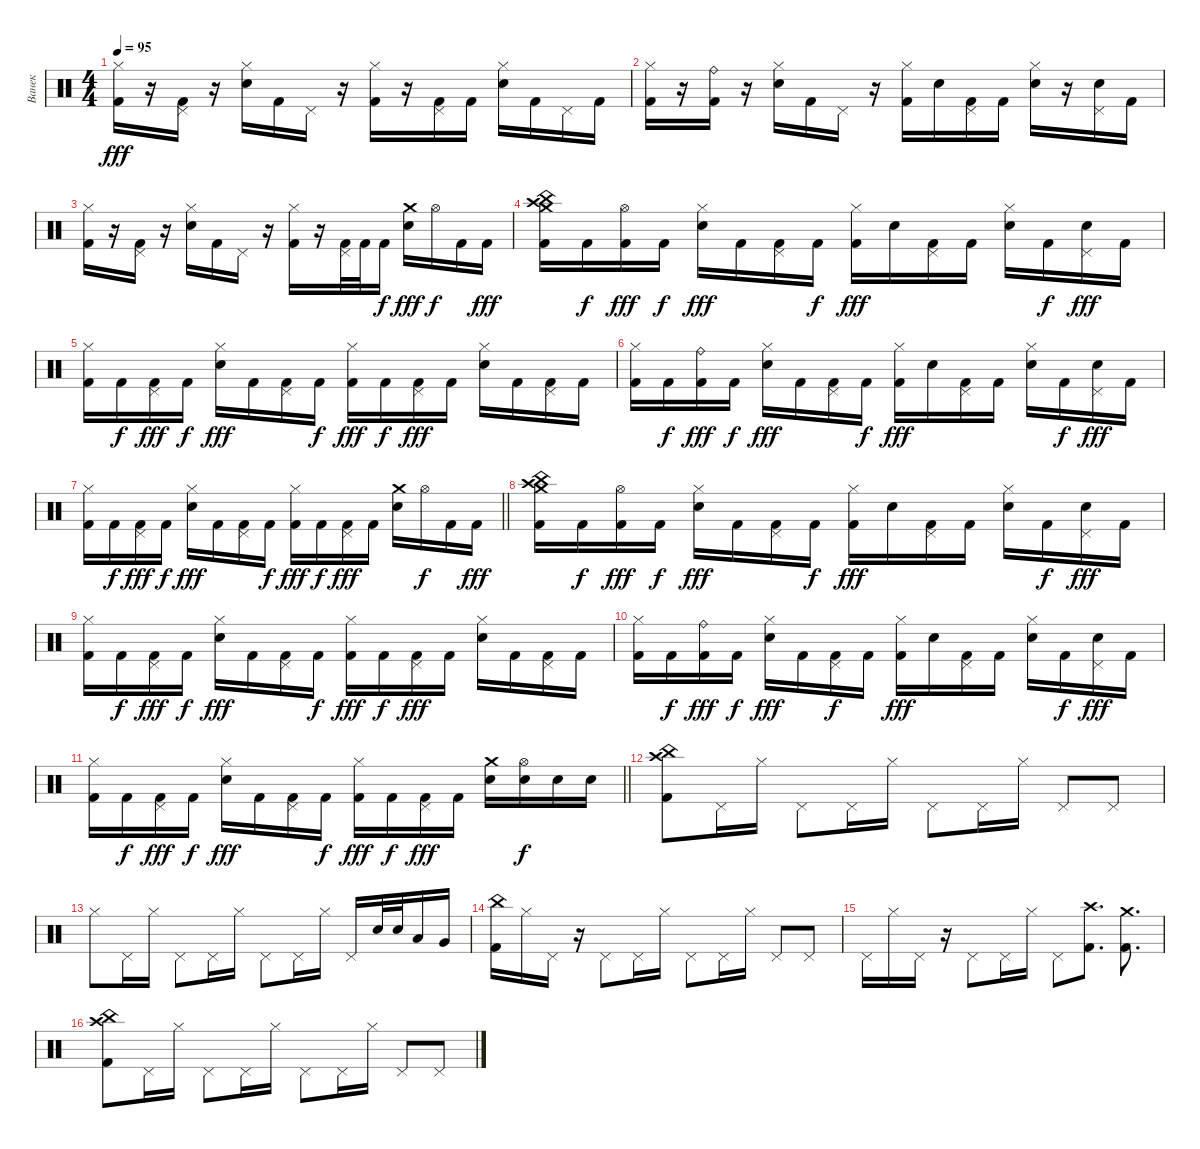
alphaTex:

\track ("Ванек" "Ванек") {instrument percussion}
\staff {score}
\articulation defaults
\ts (4 4)
\tempo 95
\clef neutral
\ks c
("Hi-Hat (closed)" "Kick (hit) 2").16{dy fff} r.16 ("Pedal Hi-Hat (hit)" "Kick (hit) 2").16 r.16 ("Hi-Hat (closed)" "Snare (hit) 2").16 "Kick (hit) 2".16 "Pedal Hi-Hat (hit)".16 r.16 ("Hi-Hat (closed)" "Kick (hit) 2").16 r.16 ("Pedal Hi-Hat (hit)" "Kick (hit) 2").16 "Kick (hit) 2".16 ("Hi-Hat (closed)" "Snare (hit) 2").16 "Kick (hit) 2".16 "Pedal Hi-Hat (hit)".16 "Kick (hit) 2".16 |
("Hi-Hat (closed)" "Kick (hit) 2").16 r.16 ("Ride (bell)" "Kick (hit) 2").16 r.16 ("Hi-Hat (closed)" "Snare (hit) 2").16 "Kick (hit) 2".16 "Pedal Hi-Hat (hit)".16 r.16 ("Hi-Hat (closed)" "Kick (hit) 2").16 "Snare (hit) 2".16 ("Pedal Hi-Hat (hit)" "Kick (hit) 2").16 "Kick (hit) 2".16 ("Hi-Hat (closed)" "Snare (hit) 2").16 r.16 ("Pedal Hi-Hat (hit)" "Snare (hit) 2").16 "Kick (hit) 2".16 |
("Hi-Hat (closed)" "Kick (hit) 2").16 r.16 ("Pedal Hi-Hat (hit)" "Kick (hit) 2").16 r.16 ("Hi-Hat (closed)" "Snare (hit) 2").16 "Kick (hit) 2".16 "Pedal Hi-Hat (hit)".16 r.16 ("Hi-Hat (closed)" "Kick (hit) 2").16 r.16 ("Pedal Hi-Hat (hit)" "Kick (hit) 2").32 "Kick (hit) 2".32 "Kick (hit) 2".16{dy f} ("Crash medium (hit)" "Snare (hit) 2").16{dy fff} "Hi-Hat (open)".16{dy f} "Kick (hit) 2".16 "Kick (hit) 2".16{dy fff} |
("Crash high (hit)" "Crash medium (hit)" "China (hit)" "Kick (hit) 2").16 "Kick (hit) 2".16{dy f} ("Hi-Hat (open)" "Kick (hit) 2").16{dy fff} "Kick (hit) 2".16{dy f} ("Hi-Hat (closed)" "Snare (hit) 2").16{dy fff} "Kick (hit) 2".16 ("Pedal Hi-Hat (hit)" "Kick (hit) 2").16 "Kick (hit) 2".16{dy f} ("Hi-Hat (closed)" "Kick (hit) 2").16{dy fff} "Snare (hit) 2".16 ("Pedal Hi-Hat (hit)" "Kick (hit) 2").16 "Kick (hit) 2".16 ("Hi-Hat (closed)" "Snare (hit) 2").16 "Kick (hit) 2".16{dy f} ("Pedal Hi-Hat (hit)" "Snare (hit) 2").16{dy fff} "Kick (hit) 2".16 |
("Hi-Hat (closed)" "Kick (hit) 2").16 "Kick (hit) 2".16{dy f} ("Pedal Hi-Hat (hit)" "Kick (hit) 2").16{dy fff} "Kick (hit) 2".16{dy f} ("Hi-Hat (closed)" "Snare (hit) 2").16{dy fff} "Kick (hit) 2".16 ("Pedal Hi-Hat (hit)" "Kick (hit) 2").16 "Kick (hit) 2".16{dy f} ("Hi-Hat (closed)" "Kick (hit) 2").16{dy fff} "Kick (hit) 2".16{dy f} ("Pedal Hi-Hat (hit)" "Kick (hit) 2").16{dy fff} "Kick (hit) 2".16 ("Hi-Hat (closed)" "Snare (hit) 2").16 "Kick (hit) 2".16 ("Pedal Hi-Hat (hit)" "Kick (hit) 2").16 "Kick (hit) 2".16 |
("Hi-Hat (closed)" "Kick (hit) 2").16 "Kick (hit) 2".16{dy f} ("Ride (bell)" "Kick (hit) 2").16{dy fff} "Kick (hit) 2".16{dy f} ("Hi-Hat (closed)" "Snare (hit) 2").16{dy fff} "Kick (hit) 2".16 ("Pedal Hi-Hat (hit)" "Kick (hit) 2").16 "Kick (hit) 2".16{dy f} ("Hi-Hat (closed)" "Kick (hit) 2").16{dy fff} "Snare (hit) 2".16 ("Pedal Hi-Hat (hit)" "Kick (hit) 2").16 "Kick (hit) 2".16 ("Hi-Hat (closed)" "Snare (hit) 2").16 "Kick (hit) 2".16{dy f} ("Pedal Hi-Hat (hit)" "Snare (hit) 2").16{dy fff} "Kick (hit) 2".16 |
\barLineRight lightlight
("Hi-Hat (closed)" "Kick (hit) 2").16 "Kick (hit) 2".16{dy f} ("Pedal Hi-Hat (hit)" "Kick (hit) 2").16{dy fff} "Kick (hit) 2".16{dy f} ("Hi-Hat (closed)" "Snare (hit) 2").16{dy fff} "Kick (hit) 2".16 ("Pedal Hi-Hat (hit)" "Kick (hit) 2").16 "Kick (hit) 2".16{dy f} ("Hi-Hat (closed)" "Kick (hit) 2").16{dy fff} "Kick (hit) 2".16{dy f} ("Pedal Hi-Hat (hit)" "Kick (hit) 2").16{dy fff} "Kick (hit) 2".16 ("Crash medium (hit)" "Snare (hit) 2").16 "Hi-Hat (open)".16{dy f} "Kick (hit) 2".16 "Kick (hit) 2".16{dy fff} |
("Crash high (hit)" "Crash medium (hit)" "China (hit)" "Kick (hit) 2").16 "Kick (hit) 2".16{dy f} ("Hi-Hat (open)" "Kick (hit) 2").16{dy fff} "Kick (hit) 2".16{dy f} ("Hi-Hat (closed)" "Snare (hit) 2").16{dy fff} "Kick (hit) 2".16 ("Pedal Hi-Hat (hit)" "Kick (hit) 2").16 "Kick (hit) 2".16{dy f} ("Hi-Hat (closed)" "Kick (hit) 2").16{dy fff} "Snare (hit) 2".16 ("Pedal Hi-Hat (hit)" "Kick (hit) 2").16 "Kick (hit) 2".16 ("Hi-Hat (closed)" "Snare (hit) 2").16 "Kick (hit) 2".16{dy f} ("Pedal Hi-Hat (hit)" "Snare (hit) 2").16{dy fff} "Kick (hit) 2".16 |
("Hi-Hat (closed)" "Kick (hit) 2").16 "Kick (hit) 2".16{dy f} ("Pedal Hi-Hat (hit)" "Kick (hit) 2").16{dy fff} "Kick (hit) 2".16{dy f} ("Hi-Hat (closed)" "Snare (hit) 2").16{dy fff} "Kick (hit) 2".16 ("Pedal Hi-Hat (hit)" "Kick (hit) 2").16 "Kick (hit) 2".16{dy f} ("Hi-Hat (closed)" "Kick (hit) 2").16{dy fff} "Kick (hit) 2".16{dy f} ("Pedal Hi-Hat (hit)" "Kick (hit) 2").16{dy fff} "Kick (hit) 2".16 ("Hi-Hat (closed)" "Snare (hit) 2").16 "Kick (hit) 2".16 ("Pedal Hi-Hat (hit)" "Kick (hit) 2").16 "Kick (hit) 2".16 |
("Hi-Hat (closed)" "Kick (hit) 2").16 "Kick (hit) 2".16{dy f} ("Ride (bell)" "Kick (hit) 2").16{dy fff} "Kick (hit) 2".16{dy f} ("Hi-Hat (closed)" "Snare (hit) 2").16{dy fff} "Kick (hit) 2".16 ("Pedal Hi-Hat (hit)" "Kick (hit) 2").16{dy f} "Kick (hit) 2".16 ("Hi-Hat (closed)" "Kick (hit) 2").16{dy fff} "Snare (hit) 2".16 ("Pedal Hi-Hat (hit)" "Kick (hit) 2").16 "Kick (hit) 2".16 ("Hi-Hat (closed)" "Snare (hit) 2").16 "Kick (hit) 2".16{dy f} ("Pedal Hi-Hat (hit)" "Snare (hit) 2").16{dy fff} "Kick (hit) 2".16 |
\barLineRight lightlight
("Hi-Hat (closed)" "Kick (hit) 2").16 "Kick (hit) 2".16{dy f} ("Pedal Hi-Hat (hit)" "Kick (hit) 2").16{dy fff} "Kick (hit) 2".16{dy f} ("Hi-Hat (closed)" "Snare (hit) 2").16{dy fff} "Kick (hit) 2".16 ("Pedal Hi-Hat (hit)" "Kick (hit) 2").16 "Kick (hit) 2".16{dy f} ("Hi-Hat (closed)" "Kick (hit) 2").16{dy fff} "Kick (hit) 2".16{dy f} ("Pedal Hi-Hat (hit)" "Kick (hit) 2").16{dy fff} "Kick (hit) 2".16 ("Crash medium (hit)" "Snare (hit) 2").16 ("Hi-Hat (open)" "Snare (hit) 2").16{dy f} "Snare (hit) 2".16 "Snare (hit) 2".16 |
("Crash high (hit)" "China (hit)" "Kick (hit) 2").8 "Pedal Hi-Hat (hit)".16 "Hi-Hat (closed)".16 "Pedal Hi-Hat (hit)".8 "Pedal Hi-Hat (hit)".16 "Hi-Hat (closed)".16 "Pedal Hi-Hat (hit)".8 "Pedal Hi-Hat (hit)".16 "Hi-Hat (closed)".16 "Pedal Hi-Hat (hit)".8 "Pedal Hi-Hat (hit)".8 |
"Hi-Hat (closed)".8 "Pedal Hi-Hat (hit)".16 "Hi-Hat (closed)".16 "Pedal Hi-Hat (hit)".8 "Pedal Hi-Hat (hit)".16 "Hi-Hat (closed)".16 "Pedal Hi-Hat (hit)".8 "Pedal Hi-Hat (hit)".16 "Hi-Hat (closed)".16 "Pedal Hi-Hat (hit)".16 "Snare (hit) 2".32 "Snare (hit) 2".32 "Low Floor Tom (hit)".16 "Very Low Tom (hit)".16 |
("China (hit)" "Kick (hit) 2").16 "Hi-Hat (closed)".16 "Pedal Hi-Hat (hit)".16 r.16 "Pedal Hi-Hat (hit)".8 "Pedal Hi-Hat (hit)".16 "Hi-Hat (closed)".16 "Pedal Hi-Hat (hit)".8 "Pedal Hi-Hat (hit)".16 "Hi-Hat (closed)".16 "Pedal Hi-Hat (hit)".8 "Pedal Hi-Hat (hit)".8 |
"Pedal Hi-Hat (hit)".16 "Hi-Hat (closed)".16 "Pedal Hi-Hat (hit)".16 r.16 "Pedal Hi-Hat (hit)".8 "Pedal Hi-Hat (hit)".16 "Hi-Hat (closed)".16 "Pedal Hi-Hat (hit)".8 ("Crash high (hit)" "Kick (hit) 2").8{d} ("Crash medium (hit)" "Kick (hit) 2").8{d} |
("Crash high (hit)" "China (hit)" "Kick (hit) 2").8 "Pedal Hi-Hat (hit)".16 "Hi-Hat (closed)".16 "Pedal Hi-Hat (hit)".8 "Pedal Hi-Hat (hit)".16 "Hi-Hat (closed)".16 "Pedal Hi-Hat (hit)".8 "Pedal Hi-Hat (hit)".16 "Hi-Hat (closed)".16 "Pedal Hi-Hat (hit)".8 "Pedal Hi-Hat (hit)".8
